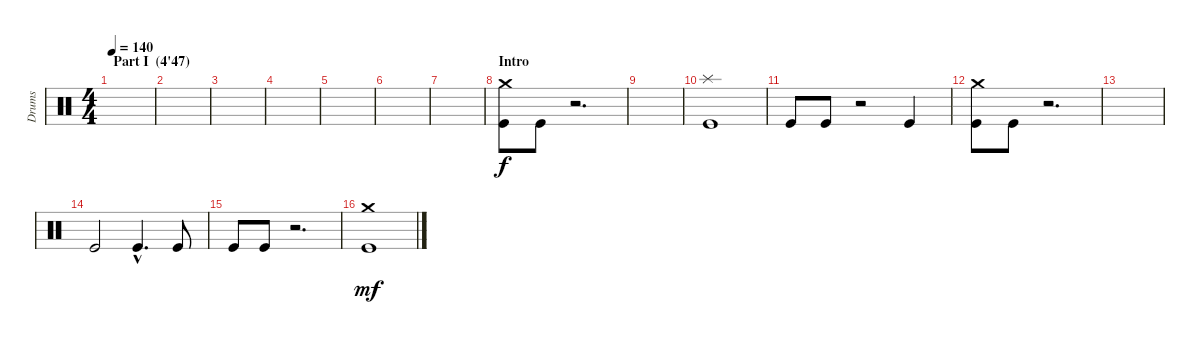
\track ("Drums" "Drums") {instrument percussion}
\staff {score}
\articulation defaults
\ts (4 4)
\section ("" "Part I  (4'47)")
\tempo 140
\clef neutral
\ks c
|
|
|
|
|
|
|
\section ("" "Intro")
("Crash medium (hit)" "Kick (hit)").8 "Kick (hit)".8{dy f} r.2{d} |
|
("Splash (hit)" "Kick (hit)").1 |
"Kick (hit)".8 "Kick (hit)".8 r.2 "Kick (hit)".4 |
("Crash medium (hit)" "Kick (hit)").8 "Kick (hit)".8 r.2{d} |
|
"Kick (hit)".2 "Kick (hit)"{hac}.4{d} "Kick (hit)".8 |
"Kick (hit)".8 "Kick (hit)".8 r.2{d} |
("Crash medium (hit)" "Kick (hit)").1{dy mf}
